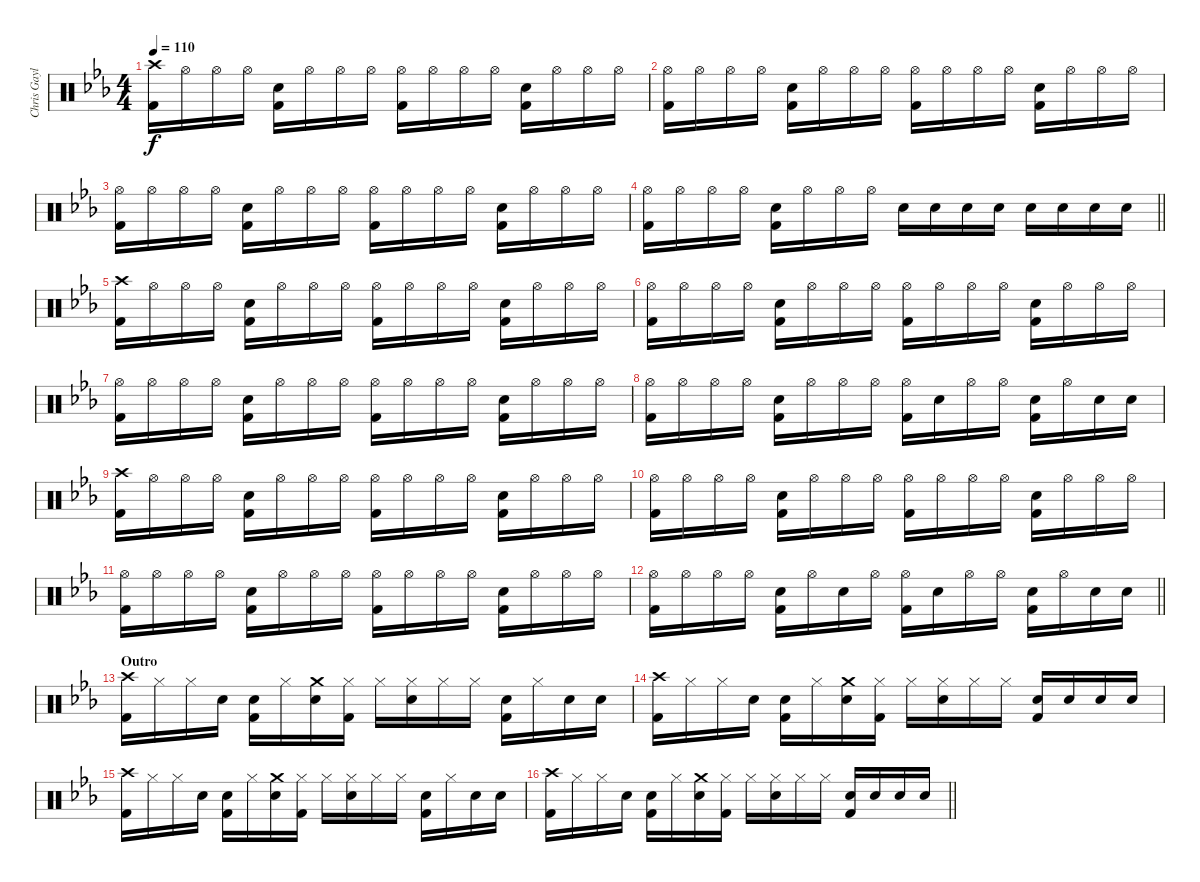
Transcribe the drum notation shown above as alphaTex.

\track ("Chris Gaylor (Percussion)" "Chris Gayl") {instrument percussion}
\staff {score}
\articulation defaults
\ts (4 4)
\tempo 110
\clef neutral
\ks eb
("Crash high (hit)" "Kick (hit) 2").16{dy f} "Hi-Hat (open)".16 "Hi-Hat (open)".16 "Hi-Hat (open)".16 ("Electric Snare (hit)" "Kick (hit) 2").16 "Hi-Hat (open)".16 "Hi-Hat (open)".16 "Hi-Hat (open)".16 ("Hi-Hat (open)" "Kick (hit) 2").16 "Hi-Hat (open)".16 "Hi-Hat (open)".16 "Hi-Hat (open)".16 ("Electric Snare (hit)" "Kick (hit) 2").16 "Hi-Hat (open)".16 "Hi-Hat (open)".16 "Hi-Hat (open)".16 |
("Hi-Hat (open)" "Kick (hit) 2").16 "Hi-Hat (open)".16 "Hi-Hat (open)".16 "Hi-Hat (open)".16 ("Electric Snare (hit)" "Kick (hit) 2").16 "Hi-Hat (open)".16 "Hi-Hat (open)".16 "Hi-Hat (open)".16 ("Hi-Hat (open)" "Kick (hit) 2").16 "Hi-Hat (open)".16 "Hi-Hat (open)".16 "Hi-Hat (open)".16 ("Electric Snare (hit)" "Kick (hit) 2").16 "Hi-Hat (open)".16 "Hi-Hat (open)".16 "Hi-Hat (open)".16 |
("Hi-Hat (open)" "Kick (hit) 2").16 "Hi-Hat (open)".16 "Hi-Hat (open)".16 "Hi-Hat (open)".16 ("Electric Snare (hit)" "Kick (hit) 2").16 "Hi-Hat (open)".16 "Hi-Hat (open)".16 "Hi-Hat (open)".16 ("Hi-Hat (open)" "Kick (hit) 2").16 "Hi-Hat (open)".16 "Hi-Hat (open)".16 "Hi-Hat (open)".16 ("Electric Snare (hit)" "Kick (hit) 2").16 "Hi-Hat (open)".16 "Hi-Hat (open)".16 "Hi-Hat (open)".16 |
\barLineRight lightlight
("Hi-Hat (open)" "Kick (hit) 2").16 "Hi-Hat (open)".16 "Hi-Hat (open)".16 "Hi-Hat (open)".16 ("Electric Snare (hit)" "Kick (hit) 2").16 "Hi-Hat (open)".16 "Hi-Hat (open)".16 "Hi-Hat (open)".16 "Electric Snare (hit)".16 "Electric Snare (hit)".16 "Electric Snare (hit)".16 "Electric Snare (hit)".16 "Electric Snare (hit)".16 "Electric Snare (hit)".16 "Electric Snare (hit)".16 "Electric Snare (hit)".16 |
("Crash high (hit)" "Kick (hit) 2").16 "Hi-Hat (open)".16 "Hi-Hat (open)".16 "Hi-Hat (open)".16 ("Electric Snare (hit)" "Kick (hit) 2").16 "Hi-Hat (open)".16 "Hi-Hat (open)".16 "Hi-Hat (open)".16 ("Hi-Hat (open)" "Kick (hit) 2").16 "Hi-Hat (open)".16 "Hi-Hat (open)".16 "Hi-Hat (open)".16 ("Electric Snare (hit)" "Kick (hit) 2").16 "Hi-Hat (open)".16 "Hi-Hat (open)".16 "Hi-Hat (open)".16 |
("Hi-Hat (open)" "Kick (hit) 2").16 "Hi-Hat (open)".16 "Hi-Hat (open)".16 "Hi-Hat (open)".16 ("Electric Snare (hit)" "Kick (hit) 2").16 "Hi-Hat (open)".16 "Hi-Hat (open)".16 "Hi-Hat (open)".16 ("Hi-Hat (open)" "Kick (hit) 2").16 "Hi-Hat (open)".16 "Hi-Hat (open)".16 "Hi-Hat (open)".16 ("Electric Snare (hit)" "Kick (hit) 2").16 "Hi-Hat (open)".16 "Hi-Hat (open)".16 "Hi-Hat (open)".16 |
("Hi-Hat (open)" "Kick (hit) 2").16 "Hi-Hat (open)".16 "Hi-Hat (open)".16 "Hi-Hat (open)".16 ("Electric Snare (hit)" "Kick (hit) 2").16 "Hi-Hat (open)".16 "Hi-Hat (open)".16 "Hi-Hat (open)".16 ("Hi-Hat (open)" "Kick (hit) 2").16 "Hi-Hat (open)".16 "Hi-Hat (open)".16 "Hi-Hat (open)".16 ("Electric Snare (hit)" "Kick (hit) 2").16 "Hi-Hat (open)".16 "Hi-Hat (open)".16 "Hi-Hat (open)".16 |
("Hi-Hat (open)" "Kick (hit) 2").16 "Hi-Hat (open)".16 "Hi-Hat (open)".16 "Hi-Hat (open)".16 ("Electric Snare (hit)" "Kick (hit) 2").16 "Hi-Hat (open)".16 "Hi-Hat (open)".16 "Hi-Hat (open)".16 ("Hi-Hat (open)" "Kick (hit) 2").16 "Electric Snare (hit)".16 "Hi-Hat (open)".16 "Hi-Hat (open)".16 ("Electric Snare (hit)" "Kick (hit) 2").16 "Hi-Hat (open)".16 "Electric Snare (hit)".16 "Electric Snare (hit)".16 |
("Crash high (hit)" "Kick (hit) 2").16 "Hi-Hat (open)".16 "Hi-Hat (open)".16 "Hi-Hat (open)".16 ("Electric Snare (hit)" "Kick (hit) 2").16 "Hi-Hat (open)".16 "Hi-Hat (open)".16 "Hi-Hat (open)".16 ("Hi-Hat (open)" "Kick (hit) 2").16 "Hi-Hat (open)".16 "Hi-Hat (open)".16 "Hi-Hat (open)".16 ("Electric Snare (hit)" "Kick (hit) 2").16 "Hi-Hat (open)".16 "Hi-Hat (open)".16 "Hi-Hat (open)".16 |
("Hi-Hat (open)" "Kick (hit) 2").16 "Hi-Hat (open)".16 "Hi-Hat (open)".16 "Hi-Hat (open)".16 ("Electric Snare (hit)" "Kick (hit) 2").16 "Hi-Hat (open)".16 "Hi-Hat (open)".16 "Hi-Hat (open)".16 ("Hi-Hat (open)" "Kick (hit) 2").16 "Hi-Hat (open)".16 "Hi-Hat (open)".16 "Hi-Hat (open)".16 ("Electric Snare (hit)" "Kick (hit) 2").16 "Hi-Hat (open)".16 "Hi-Hat (open)".16 "Hi-Hat (open)".16 |
("Hi-Hat (open)" "Kick (hit) 2").16 "Hi-Hat (open)".16 "Hi-Hat (open)".16 "Hi-Hat (open)".16 ("Electric Snare (hit)" "Kick (hit) 2").16 "Hi-Hat (open)".16 "Hi-Hat (open)".16 "Hi-Hat (open)".16 ("Hi-Hat (open)" "Kick (hit) 2").16 "Hi-Hat (open)".16 "Hi-Hat (open)".16 "Hi-Hat (open)".16 ("Electric Snare (hit)" "Kick (hit) 2").16 "Hi-Hat (open)".16 "Hi-Hat (open)".16 "Hi-Hat (open)".16 |
\barLineRight lightlight
("Hi-Hat (open)" "Kick (hit) 2").16 "Hi-Hat (open)".16 "Hi-Hat (open)".16 "Hi-Hat (open)".16 ("Electric Snare (hit)" "Kick (hit) 2").16 "Hi-Hat (open)".16 "Electric Snare (hit)".16 "Hi-Hat (open)".16 ("Hi-Hat (open)" "Kick (hit) 2").16 "Electric Snare (hit)".16 "Hi-Hat (open)".16 "Hi-Hat (open)".16 ("Electric Snare (hit)" "Kick (hit) 2").16 "Hi-Hat (open)".16 "Electric Snare (hit)".16 "Electric Snare (hit)".16 |
\section ("" "Outro")
("Crash high (hit)" "Kick (hit) 2").16 "Hi-Hat (closed)".16 "Hi-Hat (closed)".16 "Electric Snare (hit)".16 ("Electric Snare (hit)" "Kick (hit) 2").16 "Hi-Hat (closed)".16 ("Crash medium (hit)" "Electric Snare (hit)").16 ("Hi-Hat (closed)" "Kick (hit) 2").16 "Hi-Hat (closed)".16 ("Hi-Hat (closed)" "Electric Snare (hit)").16 "Hi-Hat (closed)".16 "Hi-Hat (closed)".16 ("Electric Snare (hit)" "Kick (hit) 2").16 "Hi-Hat (closed)".16 "Electric Snare (hit)".16 "Electric Snare (hit)".16 |
("Crash high (hit)" "Kick (hit) 2").16 "Hi-Hat (closed)".16 "Hi-Hat (closed)".16 "Electric Snare (hit)".16 ("Electric Snare (hit)" "Kick (hit) 2").16 "Hi-Hat (closed)".16 ("Crash medium (hit)" "Electric Snare (hit)").16 ("Hi-Hat (closed)" "Kick (hit) 2").16 "Hi-Hat (closed)".16 ("Hi-Hat (closed)" "Electric Snare (hit)").16 "Hi-Hat (closed)".16 "Hi-Hat (closed)".16 ("Electric Snare (hit)" "Kick (hit) 2").16 "Electric Snare (hit)".16 "Electric Snare (hit)".16 "Electric Snare (hit)".16 |
("Crash high (hit)" "Kick (hit) 2").16 "Hi-Hat (closed)".16 "Hi-Hat (closed)".16 "Electric Snare (hit)".16 ("Electric Snare (hit)" "Kick (hit) 2").16 "Hi-Hat (closed)".16 ("Crash medium (hit)" "Electric Snare (hit)").16 ("Hi-Hat (closed)" "Kick (hit) 2").16 "Hi-Hat (closed)".16 ("Hi-Hat (closed)" "Electric Snare (hit)").16 "Hi-Hat (closed)".16 "Hi-Hat (closed)".16 ("Electric Snare (hit)" "Kick (hit) 2").16 "Hi-Hat (closed)".16 "Electric Snare (hit)".16 "Electric Snare (hit)".16 |
\barLineRight lightlight
("Crash high (hit)" "Kick (hit) 2").16 "Hi-Hat (closed)".16 "Hi-Hat (closed)".16 "Electric Snare (hit)".16 ("Electric Snare (hit)" "Kick (hit) 2").16 "Hi-Hat (closed)".16 ("Crash medium (hit)" "Electric Snare (hit)").16 ("Hi-Hat (closed)" "Kick (hit) 2").16 "Hi-Hat (closed)".16 ("Hi-Hat (closed)" "Electric Snare (hit)").16 "Hi-Hat (closed)".16 "Hi-Hat (closed)".16 ("Electric Snare (hit)" "Kick (hit) 2").16 "Electric Snare (hit)".16 "Electric Snare (hit)".16 "Electric Snare (hit)".16
